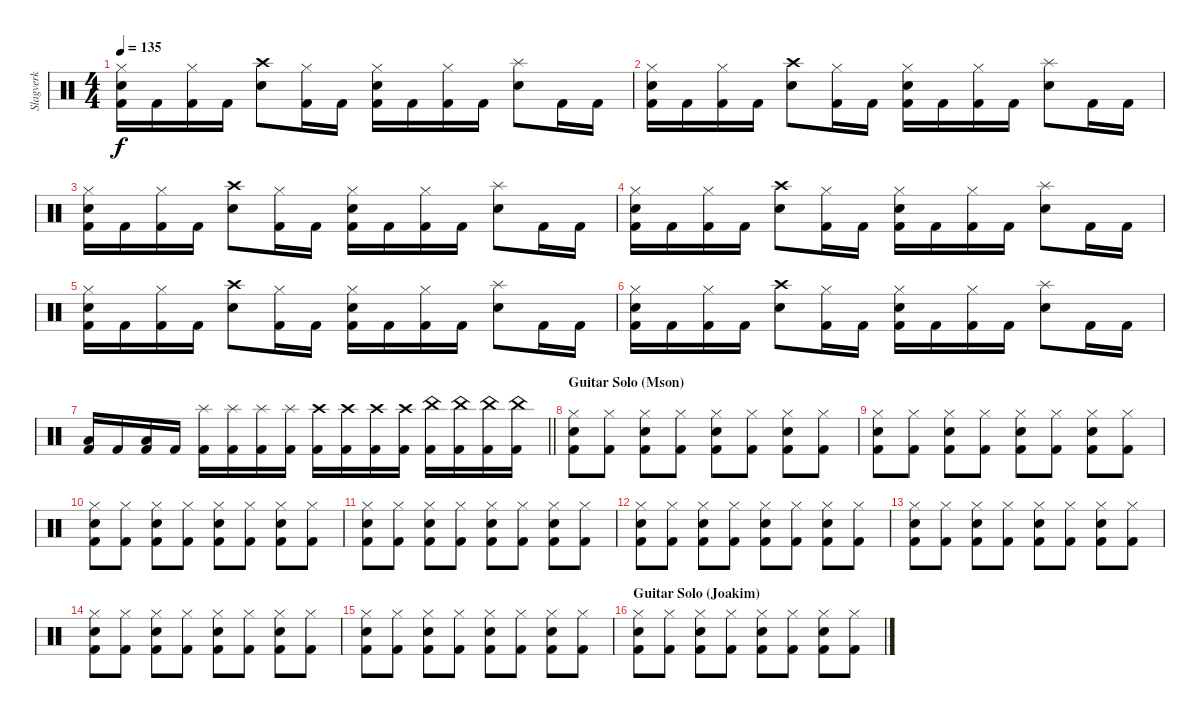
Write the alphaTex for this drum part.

\track ("Slagverk" "Slagverk") {instrument percussion}
\staff {score}
\articulation defaults
\ts (4 4)
\tempo 135
\clef neutral
\ks c
("Hi-Hat (closed)" "Snare (hit) 2" "Kick (hit) 2").16{dy f} "Kick (hit) 2".16 ("Hi-Hat (closed)" "Kick (hit) 2").16 "Kick (hit) 2".16 ("Crash high (hit)" "Snare (hit) 2").8 ("Hi-Hat (closed)" "Kick (hit) 2").16 "Kick (hit) 2".16 ("Hi-Hat (closed)" "Snare (hit) 2" "Kick (hit) 2").16 "Kick (hit) 2".16 ("Hi-Hat (closed)" "Kick (hit) 2").16 "Kick (hit) 2".16 ("Splash (hit)" "Snare (hit) 2").8 "Kick (hit) 2".16 "Kick (hit) 2".16 |
("Hi-Hat (closed)" "Snare (hit) 2" "Kick (hit) 2").16 "Kick (hit) 2".16 ("Hi-Hat (closed)" "Kick (hit) 2").16 "Kick (hit) 2".16 ("Crash high (hit)" "Snare (hit) 2").8 ("Hi-Hat (closed)" "Kick (hit) 2").16 "Kick (hit) 2".16 ("Hi-Hat (closed)" "Snare (hit) 2" "Kick (hit) 2").16 "Kick (hit) 2".16 ("Hi-Hat (closed)" "Kick (hit) 2").16 "Kick (hit) 2".16 ("Splash (hit)" "Snare (hit) 2").8 "Kick (hit) 2".16 "Kick (hit) 2".16 |
("Hi-Hat (closed)" "Snare (hit) 2" "Kick (hit) 2").16 "Kick (hit) 2".16 ("Hi-Hat (closed)" "Kick (hit) 2").16 "Kick (hit) 2".16 ("Crash high (hit)" "Snare (hit) 2").8 ("Hi-Hat (closed)" "Kick (hit) 2").16 "Kick (hit) 2".16 ("Hi-Hat (closed)" "Snare (hit) 2" "Kick (hit) 2").16 "Kick (hit) 2".16 ("Hi-Hat (closed)" "Kick (hit) 2").16 "Kick (hit) 2".16 ("Splash (hit)" "Snare (hit) 2").8 "Kick (hit) 2".16 "Kick (hit) 2".16 |
("Hi-Hat (closed)" "Snare (hit) 2" "Kick (hit) 2").16 "Kick (hit) 2".16 ("Hi-Hat (closed)" "Kick (hit) 2").16 "Kick (hit) 2".16 ("Crash high (hit)" "Snare (hit) 2").8 ("Hi-Hat (closed)" "Kick (hit) 2").16 "Kick (hit) 2".16 ("Hi-Hat (closed)" "Snare (hit) 2" "Kick (hit) 2").16 "Kick (hit) 2".16 ("Hi-Hat (closed)" "Kick (hit) 2").16 "Kick (hit) 2".16 ("Splash (hit)" "Snare (hit) 2").8 "Kick (hit) 2".16 "Kick (hit) 2".16 |
("Hi-Hat (closed)" "Snare (hit) 2" "Kick (hit) 2").16 "Kick (hit) 2".16 ("Hi-Hat (closed)" "Kick (hit) 2").16 "Kick (hit) 2".16 ("Crash high (hit)" "Snare (hit) 2").8 ("Hi-Hat (closed)" "Kick (hit) 2").16 "Kick (hit) 2".16 ("Hi-Hat (closed)" "Snare (hit) 2" "Kick (hit) 2").16 "Kick (hit) 2".16 ("Hi-Hat (closed)" "Kick (hit) 2").16 "Kick (hit) 2".16 ("Splash (hit)" "Snare (hit) 2").8 "Kick (hit) 2".16 "Kick (hit) 2".16 |
("Hi-Hat (closed)" "Snare (hit) 2" "Kick (hit) 2").16 "Kick (hit) 2".16 ("Hi-Hat (closed)" "Kick (hit) 2").16 "Kick (hit) 2".16 ("Crash high (hit)" "Snare (hit) 2").8 ("Hi-Hat (closed)" "Kick (hit) 2").16 "Kick (hit) 2".16 ("Hi-Hat (closed)" "Snare (hit) 2" "Kick (hit) 2").16 "Kick (hit) 2".16 ("Hi-Hat (closed)" "Kick (hit) 2").16 "Kick (hit) 2".16 ("Splash (hit)" "Snare (hit) 2").8 "Kick (hit) 2".16 "Kick (hit) 2".16 |
\barLineRight lightlight
("Low Tom (hit)" "Kick (hit) 2").16 "Kick (hit) 2".16 ("Low Tom (hit)" "Kick (hit) 2").16 "Kick (hit) 2".16 ("Splash (hit)" "Kick (hit) 2").16 ("Splash (hit)" "Kick (hit) 2").16 ("Splash (hit)" "Kick (hit) 2").16 ("Splash (hit)" "Kick (hit) 2").16 ("Crash high (hit)" "Kick (hit) 2").16 ("Crash high (hit)" "Kick (hit) 2").16 ("Crash high (hit)" "Kick (hit) 2").16 ("Crash high (hit)" "Kick (hit) 2").16 ("China (hit)" "Kick (hit) 2").16 ("China (hit)" "Kick (hit) 2").16 ("China (hit)" "Kick (hit) 2").16 ("China (hit)" "Kick (hit) 2").16 |
\section ("" "Guitar Solo (Mson)")
("Hi-Hat (closed)" "Snare (hit) 2" "Kick (hit) 2").8 ("Hi-Hat (closed)" "Kick (hit) 2").8 ("Hi-Hat (closed)" "Snare (hit) 2" "Kick (hit) 2").8 ("Hi-Hat (closed)" "Kick (hit) 2").8 ("Hi-Hat (closed)" "Snare (hit) 2" "Kick (hit) 2").8 ("Hi-Hat (closed)" "Kick (hit) 2").8 ("Hi-Hat (closed)" "Snare (hit) 2" "Kick (hit) 2").8 ("Hi-Hat (closed)" "Kick (hit) 2").8 |
("Hi-Hat (closed)" "Snare (hit) 2" "Kick (hit) 2").8 ("Hi-Hat (closed)" "Kick (hit) 2").8 ("Hi-Hat (closed)" "Snare (hit) 2" "Kick (hit) 2").8 ("Hi-Hat (closed)" "Kick (hit) 2").8 ("Hi-Hat (closed)" "Snare (hit) 2" "Kick (hit) 2").8 ("Hi-Hat (closed)" "Kick (hit) 2").8 ("Hi-Hat (closed)" "Snare (hit) 2" "Kick (hit) 2").8 ("Hi-Hat (closed)" "Kick (hit) 2").8 |
("Hi-Hat (closed)" "Snare (hit) 2" "Kick (hit) 2").8 ("Hi-Hat (closed)" "Kick (hit) 2").8 ("Hi-Hat (closed)" "Snare (hit) 2" "Kick (hit) 2").8 ("Hi-Hat (closed)" "Kick (hit) 2").8 ("Hi-Hat (closed)" "Snare (hit) 2" "Kick (hit) 2").8 ("Hi-Hat (closed)" "Kick (hit) 2").8 ("Hi-Hat (closed)" "Snare (hit) 2" "Kick (hit) 2").8 ("Hi-Hat (closed)" "Kick (hit) 2").8 |
("Hi-Hat (closed)" "Snare (hit) 2" "Kick (hit) 2").8 ("Hi-Hat (closed)" "Kick (hit) 2").8 ("Hi-Hat (closed)" "Snare (hit) 2" "Kick (hit) 2").8 ("Hi-Hat (closed)" "Kick (hit) 2").8 ("Hi-Hat (closed)" "Snare (hit) 2" "Kick (hit) 2").8 ("Hi-Hat (closed)" "Kick (hit) 2").8 ("Hi-Hat (closed)" "Snare (hit) 2" "Kick (hit) 2").8 ("Hi-Hat (closed)" "Kick (hit) 2").8 |
("Hi-Hat (closed)" "Snare (hit) 2" "Kick (hit) 2").8 ("Hi-Hat (closed)" "Kick (hit) 2").8 ("Hi-Hat (closed)" "Snare (hit) 2" "Kick (hit) 2").8 ("Hi-Hat (closed)" "Kick (hit) 2").8 ("Hi-Hat (closed)" "Snare (hit) 2" "Kick (hit) 2").8 ("Hi-Hat (closed)" "Kick (hit) 2").8 ("Hi-Hat (closed)" "Snare (hit) 2" "Kick (hit) 2").8 ("Hi-Hat (closed)" "Kick (hit) 2").8 |
("Hi-Hat (closed)" "Snare (hit) 2" "Kick (hit) 2").8 ("Hi-Hat (closed)" "Kick (hit) 2").8 ("Hi-Hat (closed)" "Snare (hit) 2" "Kick (hit) 2").8 ("Hi-Hat (closed)" "Kick (hit) 2").8 ("Hi-Hat (closed)" "Snare (hit) 2" "Kick (hit) 2").8 ("Hi-Hat (closed)" "Kick (hit) 2").8 ("Hi-Hat (closed)" "Snare (hit) 2" "Kick (hit) 2").8 ("Hi-Hat (closed)" "Kick (hit) 2").8 |
("Hi-Hat (closed)" "Snare (hit) 2" "Kick (hit) 2").8 ("Hi-Hat (closed)" "Kick (hit) 2").8 ("Hi-Hat (closed)" "Snare (hit) 2" "Kick (hit) 2").8 ("Hi-Hat (closed)" "Kick (hit) 2").8 ("Hi-Hat (closed)" "Snare (hit) 2" "Kick (hit) 2").8 ("Hi-Hat (closed)" "Kick (hit) 2").8 ("Hi-Hat (closed)" "Snare (hit) 2" "Kick (hit) 2").8 ("Hi-Hat (closed)" "Kick (hit) 2").8 |
("Hi-Hat (closed)" "Snare (hit) 2" "Kick (hit) 2").8 ("Hi-Hat (closed)" "Kick (hit) 2").8 ("Hi-Hat (closed)" "Snare (hit) 2" "Kick (hit) 2").8 ("Hi-Hat (closed)" "Kick (hit) 2").8 ("Hi-Hat (closed)" "Snare (hit) 2" "Kick (hit) 2").8 ("Hi-Hat (closed)" "Kick (hit) 2").8 ("Hi-Hat (closed)" "Snare (hit) 2" "Kick (hit) 2").8 ("Hi-Hat (closed)" "Kick (hit) 2").8 |
\section ("" "Guitar Solo (Joakim)")
("Hi-Hat (closed)" "Snare (hit) 2" "Kick (hit) 2").8 ("Hi-Hat (closed)" "Kick (hit) 2").8 ("Hi-Hat (closed)" "Snare (hit) 2" "Kick (hit) 2").8 ("Hi-Hat (closed)" "Kick (hit) 2").8 ("Hi-Hat (closed)" "Snare (hit) 2" "Kick (hit) 2").8 ("Hi-Hat (closed)" "Kick (hit) 2").8 ("Hi-Hat (closed)" "Snare (hit) 2" "Kick (hit) 2").8 ("Hi-Hat (closed)" "Kick (hit) 2").8
